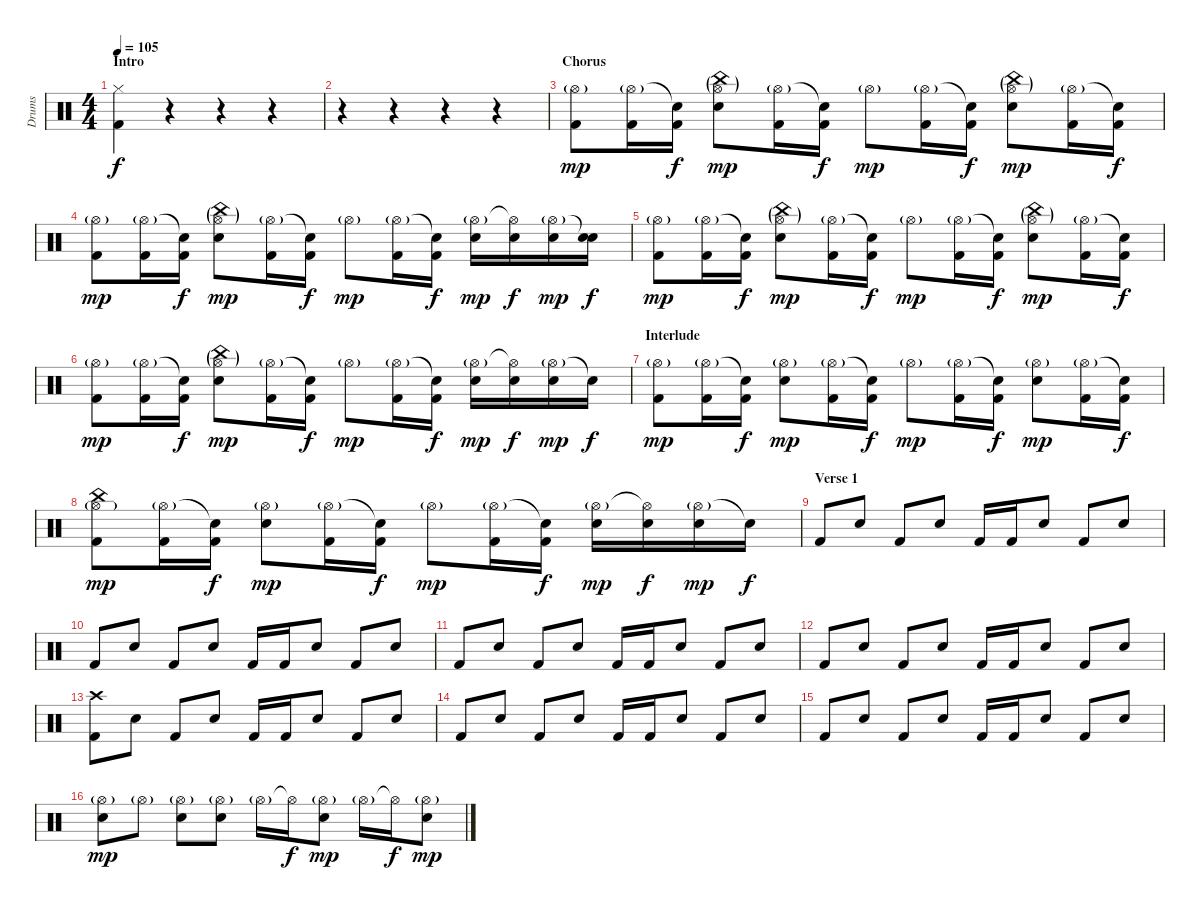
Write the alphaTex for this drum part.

\track ("Drums" "Drums") {instrument percussion}
\staff {score}
\articulation defaults
\ts (4 4)
\section ("" "Intro")
\tempo 105
\clef neutral
\ks c
("Hi-Hat (closed)" "Kick (hit) 2").4{dy f} r.4 r.4 r.4 |
r.4 r.4 r.4 r.4 |
\section ("" "Chorus")
("Hi-Hat (open)"{g} "Kick (hit) 2").8{dy mp} ("Hi-Hat (open)"{g} "Kick (hit) 2").16 ("Snare (hit)"{t} "Kick (hit) 2").16{dy f} ("China (hit)"{g} "Hi-Hat (open)"{g} "Electric Snare (hit)").8{dy mp} ("Hi-Hat (open)"{g} "Kick (hit) 2").16 ("Snare (hit)"{t} "Kick (hit) 2").16{dy f} "Hi-Hat (open)"{g}.8{dy mp} ("Hi-Hat (open)"{g} "Kick (hit) 2").16 ("Snare (hit)"{t} "Kick (hit) 2").16{dy f} ("China (hit)"{g} "Hi-Hat (open)"{g} "Electric Snare (hit)").8{dy mp} ("Hi-Hat (open)"{g} "Kick (hit) 2").16 ("Snare (hit)"{t} "Kick (hit) 2").16{dy f} |
("Hi-Hat (open)"{g} "Kick (hit) 2").8{dy mp} ("Hi-Hat (open)"{g} "Kick (hit) 2").16 ("Snare (hit)"{t} "Kick (hit) 2").16{dy f} ("China (hit)"{g} "Hi-Hat (open)"{g} "Electric Snare (hit)").8{dy mp} ("Hi-Hat (open)"{g} "Kick (hit) 2").16 ("Snare (hit)"{t} "Kick (hit) 2").16{dy f} "Hi-Hat (open)"{g}.8{dy mp} ("Hi-Hat (open)"{g} "Kick (hit) 2").16 ("Snare (hit)"{t} "Kick (hit) 2").16{dy f} ("Hi-Hat (open)"{g} "Electric Snare (hit)").16{dy mp} ("Hi-Hat (open)"{t} "Electric Snare (hit)").16{dy f} ("Hi-Hat (open)"{g} "Electric Snare (hit)").16{dy mp} ("Snare (hit)"{t} "Electric Snare (hit)").16{dy f} |
("Hi-Hat (open)"{g} "Kick (hit) 2").8{dy mp} ("Hi-Hat (open)"{g} "Kick (hit) 2").16 ("Snare (hit)"{t} "Kick (hit) 2").16{dy f} ("China (hit)"{g} "Hi-Hat (open)"{g} "Electric Snare (hit)").8{dy mp} ("Hi-Hat (open)"{g} "Kick (hit) 2").16 ("Snare (hit)"{t} "Kick (hit) 2").16{dy f} "Hi-Hat (open)"{g}.8{dy mp} ("Hi-Hat (open)"{g} "Kick (hit) 2").16 ("Snare (hit)"{t} "Kick (hit) 2").16{dy f} ("China (hit)"{g} "Hi-Hat (open)"{g} "Electric Snare (hit)").8{dy mp} ("Hi-Hat (open)"{g} "Kick (hit) 2").16 ("Snare (hit)"{t} "Kick (hit) 2").16{dy f} |
("Hi-Hat (open)"{g} "Kick (hit) 2").8{dy mp} ("Hi-Hat (open)"{g} "Kick (hit) 2").16 ("Snare (hit)"{t} "Kick (hit) 2").16{dy f} ("China (hit)"{g} "Hi-Hat (open)"{g} "Electric Snare (hit)").8{dy mp} ("Hi-Hat (open)"{g} "Kick (hit) 2").16 ("Snare (hit)"{t} "Kick (hit) 2").16{dy f} "Hi-Hat (open)"{g}.8{dy mp} ("Hi-Hat (open)"{g} "Kick (hit) 2").16 ("Snare (hit)"{t} "Kick (hit) 2").16{dy f} ("Hi-Hat (open)"{g} "Electric Snare (hit)").16{dy mp} ("Hi-Hat (open)"{t} "Electric Snare (hit)").16{dy f} ("Hi-Hat (open)"{g} "Electric Snare (hit)").16{dy mp} "Snare (hit)"{t}.16{dy f} |
\section ("" "Interlude")
("Hi-Hat (open)"{g} "Kick (hit) 2").8{dy mp} ("Hi-Hat (open)"{g} "Kick (hit) 2").16 ("Snare (hit)"{t} "Kick (hit) 2").16{dy f} ("Hi-Hat (open)"{g} "Electric Snare (hit)").8{dy mp} ("Hi-Hat (open)"{g} "Kick (hit) 2").16 ("Snare (hit)"{t} "Kick (hit) 2").16{dy f} "Hi-Hat (open)"{g}.8{dy mp} ("Hi-Hat (open)"{g} "Kick (hit) 2").16 ("Snare (hit)"{t} "Kick (hit) 2").16{dy f} ("Hi-Hat (open)"{g} "Electric Snare (hit)").8{dy mp} ("Hi-Hat (open)"{g} "Kick (hit) 2").16 ("Snare (hit)"{t} "Kick (hit) 2").16{dy f} |
("China (hit)" "Hi-Hat (open)"{g} "Kick (hit) 2").8{dy mp} ("Hi-Hat (open)"{g} "Kick (hit) 2").16 ("Snare (hit)"{t} "Kick (hit) 2").16{dy f} ("Hi-Hat (open)"{g} "Electric Snare (hit)").8{dy mp} ("Hi-Hat (open)"{g} "Kick (hit) 2").16 ("Snare (hit)"{t} "Kick (hit) 2").16{dy f} "Hi-Hat (open)"{g}.8{dy mp} ("Hi-Hat (open)"{g} "Kick (hit) 2").16 ("Snare (hit)"{t} "Kick (hit) 2").16{dy f} ("Hi-Hat (open)"{g} "Electric Snare (hit)").16{dy mp} ("Hi-Hat (open)"{t} "Electric Snare (hit)").16{dy f} ("Hi-Hat (open)"{g} "Electric Snare (hit)").16{dy mp} "Snare (hit)"{t}.16{dy f} |
\section ("" "Verse 1")
"Kick (hit) 2".8 "Electric Snare (hit)".8 "Kick (hit) 2".8 "Electric Snare (hit)".8 "Kick (hit) 2".16 "Kick (hit) 2".16 "Electric Snare (hit)".8 "Kick (hit) 2".8 "Electric Snare (hit)".8 |
"Kick (hit) 2".8 "Electric Snare (hit)".8 "Kick (hit) 2".8 "Electric Snare (hit)".8 "Kick (hit) 2".16 "Kick (hit) 2".16 "Electric Snare (hit)".8 "Kick (hit) 2".8 "Electric Snare (hit)".8 |
"Kick (hit) 2".8 "Electric Snare (hit)".8 "Kick (hit) 2".8 "Electric Snare (hit)".8 "Kick (hit) 2".16 "Kick (hit) 2".16 "Electric Snare (hit)".8 "Kick (hit) 2".8 "Electric Snare (hit)".8 |
"Kick (hit) 2".8 "Electric Snare (hit)".8 "Kick (hit) 2".8 "Electric Snare (hit)".8 "Kick (hit) 2".16 "Kick (hit) 2".16 "Electric Snare (hit)".8 "Kick (hit) 2".8 "Electric Snare (hit)".8 |
("Crash high (hit)" "Kick (hit) 2").8 "Electric Snare (hit)".8 "Kick (hit) 2".8 "Electric Snare (hit)".8 "Kick (hit) 2".16 "Kick (hit) 2".16 "Electric Snare (hit)".8 "Kick (hit) 2".8 "Electric Snare (hit)".8 |
"Kick (hit) 2".8 "Electric Snare (hit)".8 "Kick (hit) 2".8 "Electric Snare (hit)".8 "Kick (hit) 2".16 "Kick (hit) 2".16 "Electric Snare (hit)".8 "Kick (hit) 2".8 "Electric Snare (hit)".8 |
"Kick (hit) 2".8 "Electric Snare (hit)".8 "Kick (hit) 2".8 "Electric Snare (hit)".8 "Kick (hit) 2".16 "Kick (hit) 2".16 "Electric Snare (hit)".8 "Kick (hit) 2".8 "Electric Snare (hit)".8 |
("Hi-Hat (open)"{g} "Electric Snare (hit)").8{dy mp} "Hi-Hat (open)"{g}.8 ("Hi-Hat (open)"{g} "Electric Snare (hit)").8 ("Hi-Hat (open)"{g} "Electric Snare (hit)").8 "Hi-Hat (open)"{g}.16 "Hi-Hat (open)"{t}.16{dy f} ("Hi-Hat (open)"{g} "Electric Snare (hit)").8{dy mp} "Hi-Hat (open)"{g}.16 "Hi-Hat (open)"{t}.16{dy f} ("Hi-Hat (open)"{g} "Electric Snare (hit)").8{dy mp}
